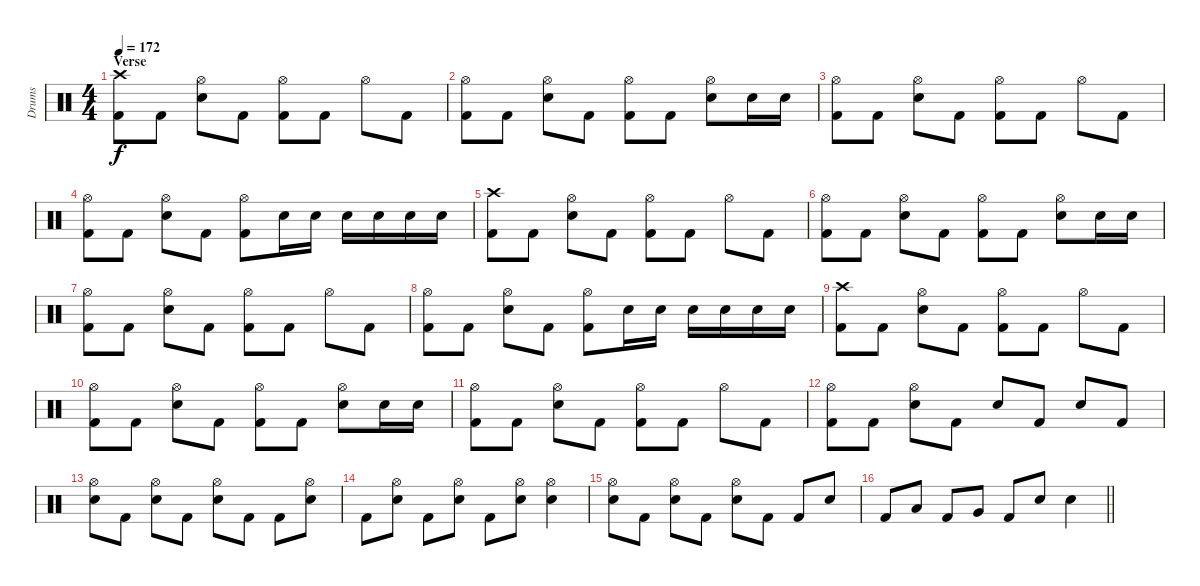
\track ("Drums" "Drums") {instrument percussion}
\staff {score}
\articulation defaults
\ts (4 4)
\section ("" "Verse")
\tempo 172
\clef neutral
\ks c
("Crash high (hit)" "Kick (hit) 2").8{dy f} "Kick (hit) 2".8 ("Hi-Hat (open)" "Electric Snare (hit)").8 "Kick (hit) 2".8 ("Hi-Hat (open)" "Kick (hit) 2").8 "Kick (hit) 2".8 "Hi-Hat (open)".8 "Kick (hit) 2".8 |
("Hi-Hat (open)" "Kick (hit) 2").8 "Kick (hit) 2".8 ("Hi-Hat (open)" "Electric Snare (hit)").8 "Kick (hit) 2".8 ("Hi-Hat (open)" "Kick (hit) 2").8 "Kick (hit) 2".8 ("Hi-Hat (open)" "Electric Snare (hit)").8 "Electric Snare (hit)".16 "Electric Snare (hit)".16 |
("Hi-Hat (open)" "Kick (hit) 2").8 "Kick (hit) 2".8 ("Hi-Hat (open)" "Electric Snare (hit)").8 "Kick (hit) 2".8 ("Hi-Hat (open)" "Kick (hit) 2").8 "Kick (hit) 2".8 "Hi-Hat (open)".8 "Kick (hit) 2".8 |
("Hi-Hat (open)" "Kick (hit) 2").8 "Kick (hit) 2".8 ("Hi-Hat (open)" "Electric Snare (hit)").8 "Kick (hit) 2".8 ("Hi-Hat (open)" "Kick (hit) 2").8 "Electric Snare (hit)".16 "Electric Snare (hit)".16 "Electric Snare (hit)".16 "Electric Snare (hit)".16 "Electric Snare (hit)".16 "Electric Snare (hit)".16 |
("Crash high (hit)" "Kick (hit) 2").8 "Kick (hit) 2".8 ("Hi-Hat (open)" "Electric Snare (hit)").8 "Kick (hit) 2".8 ("Hi-Hat (open)" "Kick (hit) 2").8 "Kick (hit) 2".8 "Hi-Hat (open)".8 "Kick (hit) 2".8 |
("Hi-Hat (open)" "Kick (hit) 2").8 "Kick (hit) 2".8 ("Hi-Hat (open)" "Electric Snare (hit)").8 "Kick (hit) 2".8 ("Hi-Hat (open)" "Kick (hit) 2").8 "Kick (hit) 2".8 ("Hi-Hat (open)" "Electric Snare (hit)").8 "Electric Snare (hit)".16 "Electric Snare (hit)".16 |
("Hi-Hat (open)" "Kick (hit) 2").8 "Kick (hit) 2".8 ("Hi-Hat (open)" "Electric Snare (hit)").8 "Kick (hit) 2".8 ("Hi-Hat (open)" "Kick (hit) 2").8 "Kick (hit) 2".8 "Hi-Hat (open)".8 "Kick (hit) 2".8 |
("Hi-Hat (open)" "Kick (hit) 2").8 "Kick (hit) 2".8 ("Hi-Hat (open)" "Electric Snare (hit)").8 "Kick (hit) 2".8 ("Hi-Hat (open)" "Kick (hit) 2").8 "Electric Snare (hit)".16 "Electric Snare (hit)".16 "Electric Snare (hit)".16 "Electric Snare (hit)".16 "Electric Snare (hit)".16 "Electric Snare (hit)".16 |
("Crash high (hit)" "Kick (hit) 2").8 "Kick (hit) 2".8 ("Hi-Hat (open)" "Electric Snare (hit)").8 "Kick (hit) 2".8 ("Hi-Hat (open)" "Kick (hit) 2").8 "Kick (hit) 2".8 "Hi-Hat (open)".8 "Kick (hit) 2".8 |
("Hi-Hat (open)" "Kick (hit) 2").8 "Kick (hit) 2".8 ("Hi-Hat (open)" "Electric Snare (hit)").8 "Kick (hit) 2".8 ("Hi-Hat (open)" "Kick (hit) 2").8 "Kick (hit) 2".8 ("Hi-Hat (open)" "Electric Snare (hit)").8 "Electric Snare (hit)".16 "Electric Snare (hit)".16 |
("Hi-Hat (open)" "Kick (hit) 2").8 "Kick (hit) 2".8 ("Hi-Hat (open)" "Electric Snare (hit)").8 "Kick (hit) 2".8 ("Hi-Hat (open)" "Kick (hit) 2").8 "Kick (hit) 2".8 "Hi-Hat (open)".8 "Kick (hit) 2".8 |
("Hi-Hat (open)" "Kick (hit) 2").8 "Kick (hit) 2".8 ("Hi-Hat (open)" "Electric Snare (hit)").8 "Kick (hit) 2".8 "Electric Snare (hit)".8 "Kick (hit) 2".8 "Electric Snare (hit)".8 "Kick (hit) 2".8 |
("Hi-Hat (open)" "Electric Snare (hit)").8 "Kick (hit) 2".8 ("Hi-Hat (open)" "Electric Snare (hit)").8 "Kick (hit) 2".8 ("Hi-Hat (open)" "Electric Snare (hit)").8 "Kick (hit) 2".8 "Kick (hit) 2".8 ("Hi-Hat (open)" "Electric Snare (hit)").8 |
"Kick (hit) 2".8 ("Hi-Hat (open)" "Electric Snare (hit)").8 "Kick (hit) 2".8 ("Hi-Hat (open)" "Electric Snare (hit)").8 "Kick (hit) 2".8 ("Hi-Hat (open)" "Electric Snare (hit)").8 ("Hi-Hat (open)" "Electric Snare (hit)").4 |
("Hi-Hat (open)" "Electric Snare (hit)").8 "Kick (hit) 2".8 ("Hi-Hat (open)" "Electric Snare (hit)").8 "Kick (hit) 2".8 ("Hi-Hat (open)" "Electric Snare (hit)").8 "Kick (hit) 2".8 "Kick (hit) 2".8 "Electric Snare (hit)".8 |
\barLineRight lightlight "Kick (hit) 2".8 "Low Tom (hit)".8 "Kick (hit) 2".8 "Very Low Tom (hit)".8 "Kick (hit) 2".8 "Electric Snare (hit)".8 "Electric Snare (hit)".4
